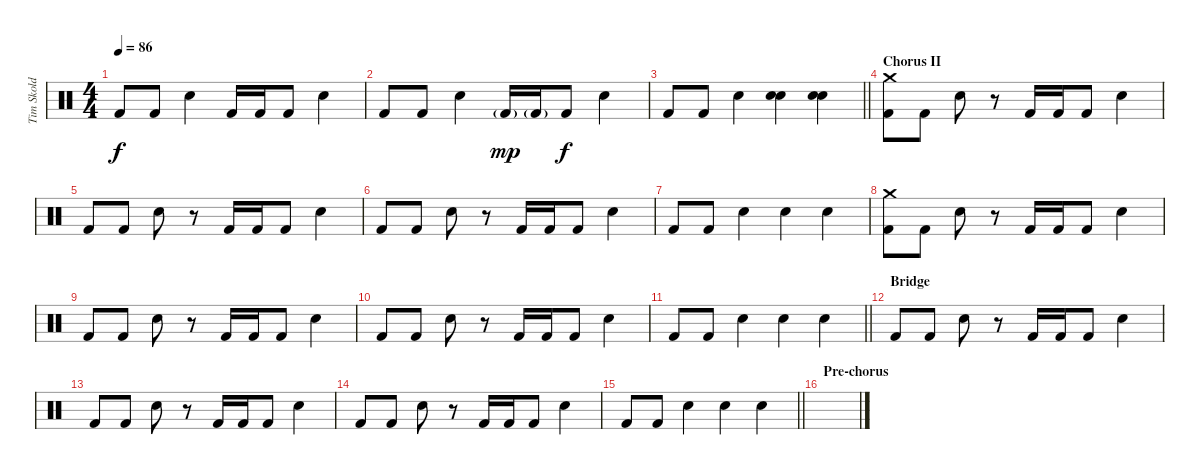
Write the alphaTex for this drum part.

\track ("Tim Skold V" "Tim Skold ") {instrument percussion}
\staff {score}
\articulation defaults
\ts (4 4)
\tempo 86
\clef neutral
\ks c "Kick (hit) 2".8{dy f} "Kick (hit) 2".8 "Electric Snare (hit)".4 "Kick (hit) 2".16 "Kick (hit) 2".16 "Kick (hit) 2".8 "Electric Snare (hit)".4
|
"Kick (hit) 2".8 "Kick (hit) 2".8 "Electric Snare (hit)".4 "Kick (hit) 2"{g}.16{dy mp} "Kick (hit) 2"{g}.16 "Kick (hit) 2".8{dy f} "Electric Snare (hit)".4 |
\barLineRight lightlight "Kick (hit) 2".8 "Kick (hit) 2".8 "Electric Snare (hit)".4
("Electric Snare (hit)" "Electric Snare (hit)").4{volume 13} ("Electric Snare (hit)" "Electric Snare (hit)").4 |
\section ("" "Chorus II")
("Crash medium (hit)" "Kick (hit) 2").8 "Kick (hit) 2".8 "Electric Snare (hit)".8 r.8 "Kick (hit) 2".16 "Kick (hit) 2".16 "Kick (hit) 2".8 "Electric Snare (hit)".4 |
"Kick (hit) 2".8 "Kick (hit) 2".8 "Electric Snare (hit)".8 r.8 "Kick (hit) 2".16 "Kick (hit) 2".16 "Kick (hit) 2".8 "Electric Snare (hit)".4 |
"Kick (hit) 2".8 "Kick (hit) 2".8 "Electric Snare (hit)".8 r.8 "Kick (hit) 2".16 "Kick (hit) 2".16 "Kick (hit) 2".8 "Electric Snare (hit)".4 |
"Kick (hit) 2".8 "Kick (hit) 2".8 "Electric Snare (hit)".4 "Electric Snare (hit)".4 "Electric Snare (hit)".4 |
("Crash medium (hit)" "Kick (hit) 2").8 "Kick (hit) 2".8 "Electric Snare (hit)".8 r.8 "Kick (hit) 2".16 "Kick (hit) 2".16 "Kick (hit) 2".8 "Electric Snare (hit)".4 |
"Kick (hit) 2".8 "Kick (hit) 2".8 "Electric Snare (hit)".8 r.8 "Kick (hit) 2".16 "Kick (hit) 2".16 "Kick (hit) 2".8 "Electric Snare (hit)".4 |
"Kick (hit) 2".8 "Kick (hit) 2".8 "Electric Snare (hit)".8 r.8 "Kick (hit) 2".16 "Kick (hit) 2".16 "Kick (hit) 2".8 "Electric Snare (hit)".4 |
\barLineRight lightlight "Kick (hit) 2".8 "Kick (hit) 2".8 "Electric Snare (hit)".4 "Electric Snare (hit)".4 "Electric Snare (hit)".4
|
\section ("" "Bridge")
"Kick (hit) 2".8 "Kick (hit) 2".8 "Electric Snare (hit)".8 r.8 "Kick (hit) 2".16 "Kick (hit) 2".16 "Kick (hit) 2".8 "Electric Snare (hit)".4 |
"Kick (hit) 2".8 "Kick (hit) 2".8 "Electric Snare (hit)".8 r.8 "Kick (hit) 2".16 "Kick (hit) 2".16 "Kick (hit) 2".8 "Electric Snare (hit)".4 |
"Kick (hit) 2".8 "Kick (hit) 2".8 "Electric Snare (hit)".8 r.8 "Kick (hit) 2".16 "Kick (hit) 2".16 "Kick (hit) 2".8 "Electric Snare (hit)".4 |
\barLineRight lightlight "Kick (hit) 2".8 "Kick (hit) 2".8 "Electric Snare (hit)".4 "Electric Snare (hit)".4 "Electric Snare (hit)".4
|
\section ("" "Pre-chorus")
